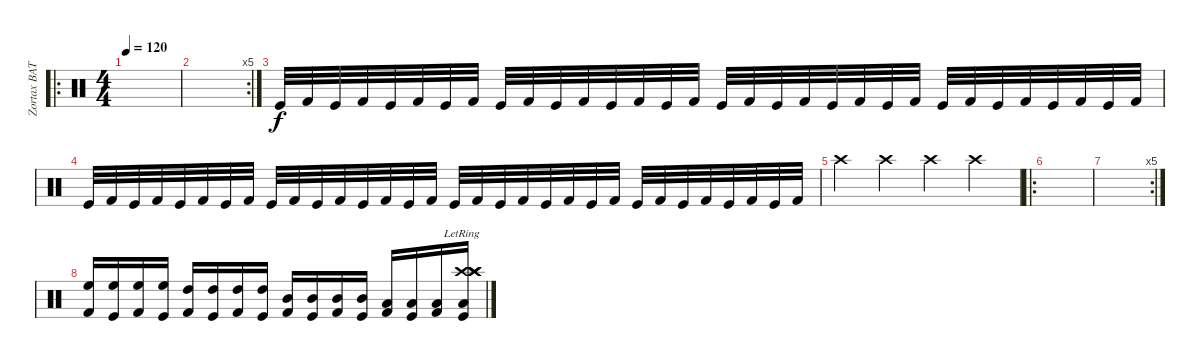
\track ("Zortax BATTERY" "Zortax BAT") {instrument percussion}
\staff {score}
\articulation defaults
\ro
\ts (4 4)
\tempo 120
\clef neutral
\ks c
|
\rc 5
|
"Kick (hit)".32 "Kick (hit) 2".32 "Kick (hit)".32 "Kick (hit) 2".32 "Kick (hit)".32 "Kick (hit) 2".32 "Kick (hit)".32 "Kick (hit) 2".32 "Kick (hit)".32 "Kick (hit) 2".32 "Kick (hit)".32 "Kick (hit) 2".32 "Kick (hit)".32 "Kick (hit) 2".32 "Kick (hit)".32 "Kick (hit) 2".32 "Kick (hit)".32 "Kick (hit) 2".32 "Kick (hit)".32 "Kick (hit) 2".32 "Kick (hit)".32 "Kick (hit) 2".32 "Kick (hit)".32 "Kick (hit) 2".32 "Kick (hit)".32 "Kick (hit) 2".32 "Kick (hit)".32 "Kick (hit) 2".32 "Kick (hit)".32 "Kick (hit) 2".32 "Kick (hit)".32 "Kick (hit) 2".32 |
"Kick (hit)".32 "Kick (hit) 2".32 "Kick (hit)".32 "Kick (hit) 2".32 "Kick (hit)".32 "Kick (hit) 2".32 "Kick (hit)".32 "Kick (hit) 2".32 "Kick (hit)".32 "Kick (hit) 2".32 "Kick (hit)".32 "Kick (hit) 2".32 "Kick (hit)".32 "Kick (hit) 2".32 "Kick (hit)".32 "Kick (hit) 2".32 "Kick (hit)".32 "Kick (hit) 2".32 "Kick (hit)".32 "Kick (hit) 2".32 "Kick (hit)".32 "Kick (hit) 2".32 "Kick (hit)".32 "Kick (hit) 2".32 "Kick (hit)".32 "Kick (hit) 2".32 "Kick (hit)".32 "Kick (hit) 2".32 "Kick (hit)".32 "Kick (hit) 2".32 "Kick (hit)".32 "Kick (hit) 2".32 |
"Crash high (hit)".4 "Crash high (hit)".4 "Crash high (hit)".4 "Crash high (hit)".4 |
\ro
|
\rc 5
|
("Kick (hit) 2" "High Floor Tom (hit)").16 ("Kick (hit)" "High Floor Tom (hit)").16 ("Kick (hit) 2" "High Floor Tom (hit)").16 ("Kick (hit)" "High Floor Tom (hit)").16 ("Kick (hit) 2" "High Tom (hit)").16 ("Kick (hit)" "High Tom (hit)").16 ("Kick (hit) 2" "High Tom (hit)").16 ("Kick (hit)" "High Tom (hit)").16 ("Kick (hit) 2" "Mid Tom (hit)").16 ("Kick (hit)" "Mid Tom (hit)").16 ("Kick (hit) 2" "Mid Tom (hit)").16 ("Kick (hit)" "Mid Tom (hit)").16 ("Kick (hit) 2" "Low Tom (hit)").16 ("Kick (hit)" "Low Tom (hit)").16 ("Kick (hit) 2" "Low Tom (hit)").16 ("Kick (hit)"{lr} "Low Tom (hit)"{lr} "Crash high (hit)"{lr} "Crash high (hit)"{lr} "Crash high (hit)"{lr} "Crash high (hit)"{lr}).16
